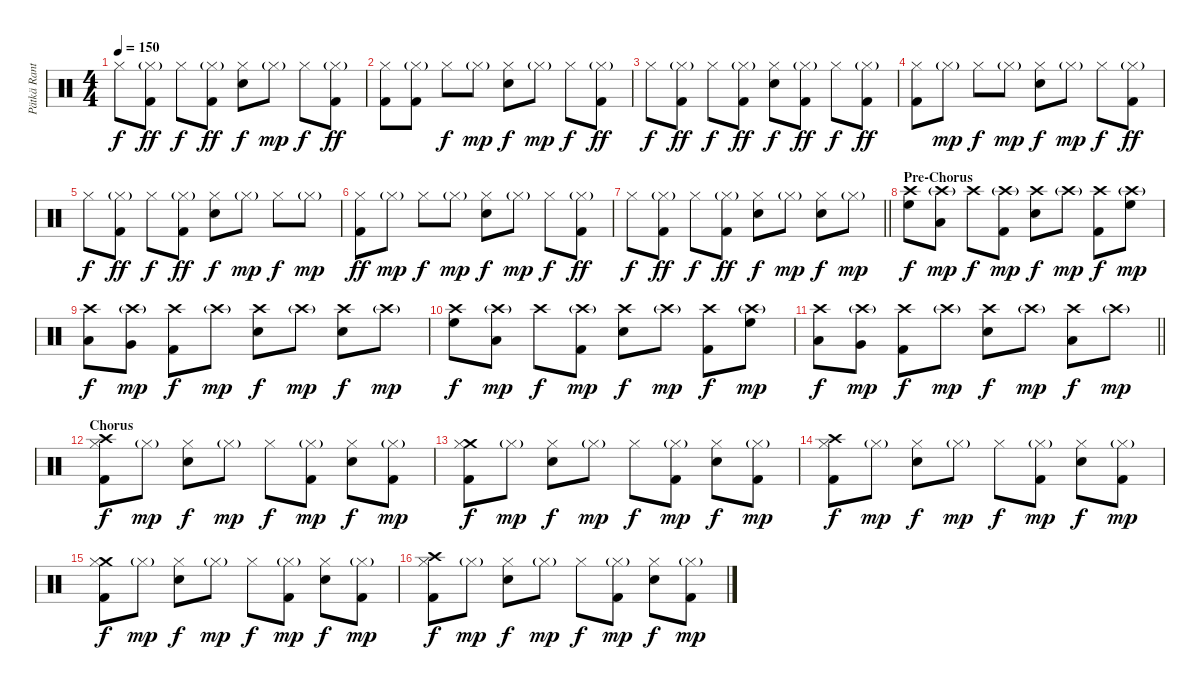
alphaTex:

\track ("Pätkä Rantala (Drums)" "Pätkä Rant") {instrument percussion}
\staff {score}
\articulation defaults
\ts (4 4)
\tempo 150
\clef neutral
\ks c "Hi-Hat (closed)".8{dy f}
("Hi-Hat (closed)"{g} "Kick (hit) 2").8{dy ff} "Hi-Hat (closed)".8{dy f} ("Hi-Hat (closed)"{g} "Kick (hit) 2").8{dy ff} ("Hi-Hat (closed)" "Snare (hit) 2").8{dy f} "Hi-Hat (closed)"{g}.8{dy mp} "Hi-Hat (closed)".8{dy f} ("Hi-Hat (closed)"{g} "Kick (hit) 2").8{dy ff} |
("Hi-Hat (closed)" "Kick (hit) 2").8 ("Hi-Hat (closed)"{g} "Kick (hit) 2").8 "Hi-Hat (closed)".8{dy f} "Hi-Hat (closed)"{g}.8{dy mp} ("Hi-Hat (closed)" "Snare (hit) 2").8{dy f} "Hi-Hat (closed)"{g}.8{dy mp} "Hi-Hat (closed)".8{dy f} ("Hi-Hat (closed)"{g} "Kick (hit) 2").8{dy ff} |
"Hi-Hat (closed)".8{dy f} ("Hi-Hat (closed)"{g} "Kick (hit) 2").8{dy ff} "Hi-Hat (closed)".8{dy f} ("Hi-Hat (closed)"{g} "Kick (hit) 2").8{dy ff} ("Hi-Hat (closed)" "Snare (hit) 2").8{dy f} ("Hi-Hat (closed)"{g} "Kick (hit) 2").8{dy ff} "Hi-Hat (closed)".8{dy f} ("Hi-Hat (closed)"{g} "Kick (hit) 2").8{dy ff} |
("Hi-Hat (closed)" "Kick (hit) 2").8 "Hi-Hat (closed)"{g}.8{dy mp} "Hi-Hat (closed)".8{dy f} "Hi-Hat (closed)"{g}.8{dy mp} ("Hi-Hat (closed)" "Snare (hit) 2").8{dy f} "Hi-Hat (closed)"{g}.8{dy mp} "Hi-Hat (closed)".8{dy f} ("Hi-Hat (closed)"{g} "Kick (hit) 2").8{dy ff} |
"Hi-Hat (closed)".8{dy f} ("Hi-Hat (closed)"{g} "Kick (hit) 2").8{dy ff} "Hi-Hat (closed)".8{dy f} ("Hi-Hat (closed)"{g} "Kick (hit) 2").8{dy ff} ("Hi-Hat (closed)" "Snare (hit) 2").8{dy f} "Hi-Hat (closed)"{g}.8{dy mp} "Hi-Hat (closed)".8{dy f} "Hi-Hat (closed)"{g}.8{dy mp} |
("Hi-Hat (closed)" "Kick (hit) 2").8{dy ff} "Hi-Hat (closed)"{g}.8{dy mp} "Hi-Hat (closed)".8{dy f} "Hi-Hat (closed)"{g}.8{dy mp} ("Hi-Hat (closed)" "Snare (hit) 2").8{dy f} "Hi-Hat (closed)"{g}.8{dy mp} "Hi-Hat (closed)".8{dy f} ("Hi-Hat (closed)"{g} "Kick (hit) 2").8{dy ff} |
\barLineRight lightlight "Hi-Hat (closed)".8{dy f}
("Hi-Hat (closed)"{g} "Kick (hit) 2").8{dy ff} "Hi-Hat (closed)".8{dy f} ("Hi-Hat (closed)"{g} "Kick (hit) 2").8{dy ff} ("Hi-Hat (closed)" "Snare (hit) 2").8{dy f} "Hi-Hat (closed)"{g}.8{dy mp} ("Hi-Hat (closed)" "Snare (hit) 2").8{dy f} "Hi-Hat (closed)"{g}.8{dy mp} |
\section ("" "Pre-Chorus")
("Crash high (hit)" "High Floor Tom (hit)").8{dy f} ("Crash high (hit)"{g} "Low Tom (hit)").8{dy mp} "Crash high (hit)".8{dy f} ("Crash high (hit)"{g} "Kick (hit) 2").8{dy mp} ("Crash high (hit)" "Snare (hit) 2").8{dy f} "Crash high (hit)"{g}.8{dy mp} ("Crash high (hit)" "Kick (hit) 2").8{dy f} ("Crash high (hit)"{g} "High Floor Tom (hit)").8{dy mp} |
("Crash high (hit)" "Low Tom (hit)").8{dy f} ("Crash high (hit)"{g} "Very Low Tom (hit)").8{dy mp} ("Crash high (hit)" "Kick (hit) 2").8{dy f} "Crash high (hit)"{g}.8{dy mp} ("Crash high (hit)" "Snare (hit) 2").8{dy f} "Crash high (hit)"{g}.8{dy mp} ("Crash high (hit)" "Snare (hit) 2").8{dy f} "Crash high (hit)"{g}.8{dy mp} |
("Crash high (hit)" "High Floor Tom (hit)").8{dy f} ("Crash high (hit)"{g} "Low Tom (hit)").8{dy mp} "Crash high (hit)".8{dy f} ("Crash high (hit)"{g} "Kick (hit) 2").8{dy mp} ("Crash high (hit)" "Snare (hit) 2").8{dy f} "Crash high (hit)"{g}.8{dy mp} ("Crash high (hit)" "Kick (hit) 2").8{dy f} ("Crash high (hit)"{g} "High Floor Tom (hit)").8{dy mp} |
\barLineRight lightlight
("Crash high (hit)" "Low Tom (hit)").8{dy f} ("Crash high (hit)"{g} "Very Low Tom (hit)").8{dy mp} ("Crash high (hit)" "Kick (hit) 2").8{dy f} "Crash high (hit)"{g}.8{dy mp} ("Crash high (hit)" "Snare (hit) 2").8{dy f} "Crash high (hit)"{g}.8{dy mp} ("Crash high (hit)" "Low Tom (hit)").8{dy f} "Crash high (hit)"{g}.8{dy mp} |
\section ("" "Chorus")
("Crash high (hit)" "Hi-Hat (closed)" "Kick (hit) 2").8{dy f} "Hi-Hat (closed)"{g}.8{dy mp} ("Hi-Hat (closed)" "Snare (hit) 2").8{dy f} "Hi-Hat (closed)"{g}.8{dy mp} "Hi-Hat (closed)".8{dy f} ("Hi-Hat (closed)"{g} "Kick (hit) 2").8{dy mp} ("Hi-Hat (closed)" "Snare (hit) 2").8{dy f} ("Hi-Hat (closed)"{g} "Kick (hit) 2").8{dy mp} |
("Crash medium (hit)" "Hi-Hat (closed)" "Kick (hit) 2").8{dy f} "Hi-Hat (closed)"{g}.8{dy mp} ("Hi-Hat (closed)" "Snare (hit) 2").8{dy f} "Hi-Hat (closed)"{g}.8{dy mp} "Hi-Hat (closed)".8{dy f} ("Hi-Hat (closed)"{g} "Kick (hit) 2").8{dy mp} ("Hi-Hat (closed)" "Snare (hit) 2").8{dy f} ("Hi-Hat (closed)"{g} "Kick (hit) 2").8{dy mp} |
("Crash high (hit)" "Hi-Hat (closed)" "Kick (hit) 2").8{dy f} "Hi-Hat (closed)"{g}.8{dy mp} ("Hi-Hat (closed)" "Snare (hit) 2").8{dy f} "Hi-Hat (closed)"{g}.8{dy mp} "Hi-Hat (closed)".8{dy f} ("Hi-Hat (closed)"{g} "Kick (hit) 2").8{dy mp} ("Hi-Hat (closed)" "Snare (hit) 2").8{dy f} ("Hi-Hat (closed)"{g} "Kick (hit) 2").8{dy mp} |
("Crash medium (hit)" "Hi-Hat (closed)" "Kick (hit) 2").8{dy f} "Hi-Hat (closed)"{g}.8{dy mp} ("Hi-Hat (closed)" "Snare (hit) 2").8{dy f} "Hi-Hat (closed)"{g}.8{dy mp} "Hi-Hat (closed)".8{dy f} ("Hi-Hat (closed)"{g} "Kick (hit) 2").8{dy mp} ("Hi-Hat (closed)" "Snare (hit) 2").8{dy f} ("Hi-Hat (closed)"{g} "Kick (hit) 2").8{dy mp} |
("Crash high (hit)" "Hi-Hat (closed)" "Kick (hit) 2").8{dy f} "Hi-Hat (closed)"{g}.8{dy mp} ("Hi-Hat (closed)" "Snare (hit) 2").8{dy f} "Hi-Hat (closed)"{g}.8{dy mp} "Hi-Hat (closed)".8{dy f} ("Hi-Hat (closed)"{g} "Kick (hit) 2").8{dy mp} ("Hi-Hat (closed)" "Snare (hit) 2").8{dy f} ("Hi-Hat (closed)"{g} "Kick (hit) 2").8{dy mp}
